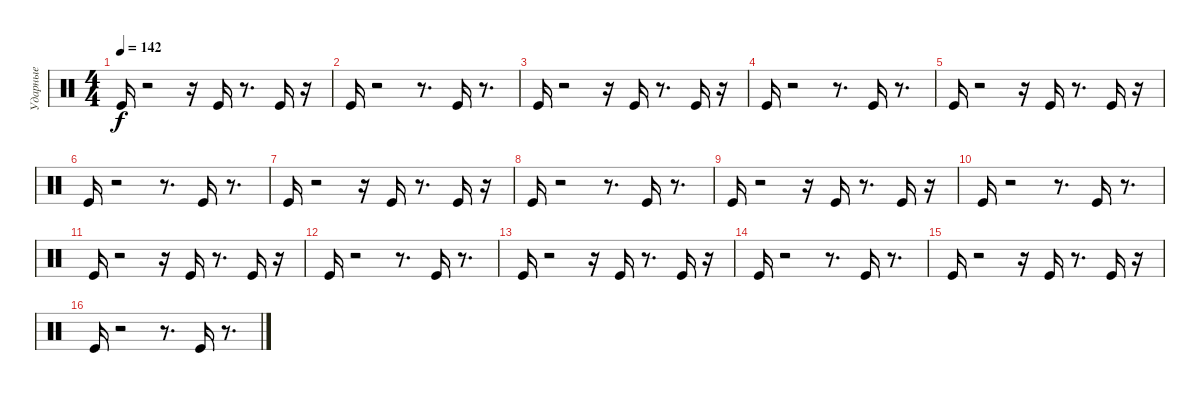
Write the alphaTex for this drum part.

\track ("Ударные" "Ударные") {instrument percussion}
\staff {score}
\articulation defaults
\ts (4 4)
\tempo 142
\clef neutral
\ks c "Kick (hit)".16{dy f}
r.2 r.16 "Kick (hit)".16 r.8{d} "Kick (hit)".16 r.16 |
"Kick (hit)".16 r.2 r.8{d} "Kick (hit)".16 r.8{d} |
"Kick (hit)".16 r.2 r.16 "Kick (hit)".16 r.8{d} "Kick (hit)".16 r.16 |
"Kick (hit)".16 r.2 r.8{d} "Kick (hit)".16 r.8{d} |
"Kick (hit)".16 r.2 r.16 "Kick (hit)".16 r.8{d} "Kick (hit)".16 r.16 |
"Kick (hit)".16 r.2 r.8{d} "Kick (hit)".16 r.8{d} |
"Kick (hit)".16 r.2 r.16 "Kick (hit)".16 r.8{d} "Kick (hit)".16 r.16 |
"Kick (hit)".16 r.2 r.8{d} "Kick (hit)".16 r.8{d} |
"Kick (hit)".16 r.2 r.16 "Kick (hit)".16 r.8{d} "Kick (hit)".16 r.16 |
"Kick (hit)".16 r.2 r.8{d} "Kick (hit)".16 r.8{d} |
"Kick (hit)".16 r.2 r.16 "Kick (hit)".16 r.8{d} "Kick (hit)".16 r.16 |
"Kick (hit)".16 r.2 r.8{d} "Kick (hit)".16 r.8{d} |
"Kick (hit)".16 r.2 r.16 "Kick (hit)".16 r.8{d} "Kick (hit)".16 r.16 |
"Kick (hit)".16 r.2 r.8{d} "Kick (hit)".16 r.8{d} |
"Kick (hit)".16 r.2 r.16 "Kick (hit)".16 r.8{d} "Kick (hit)".16 r.16 |
"Kick (hit)".16 r.2 r.8{d} "Kick (hit)".16 r.8{d}
